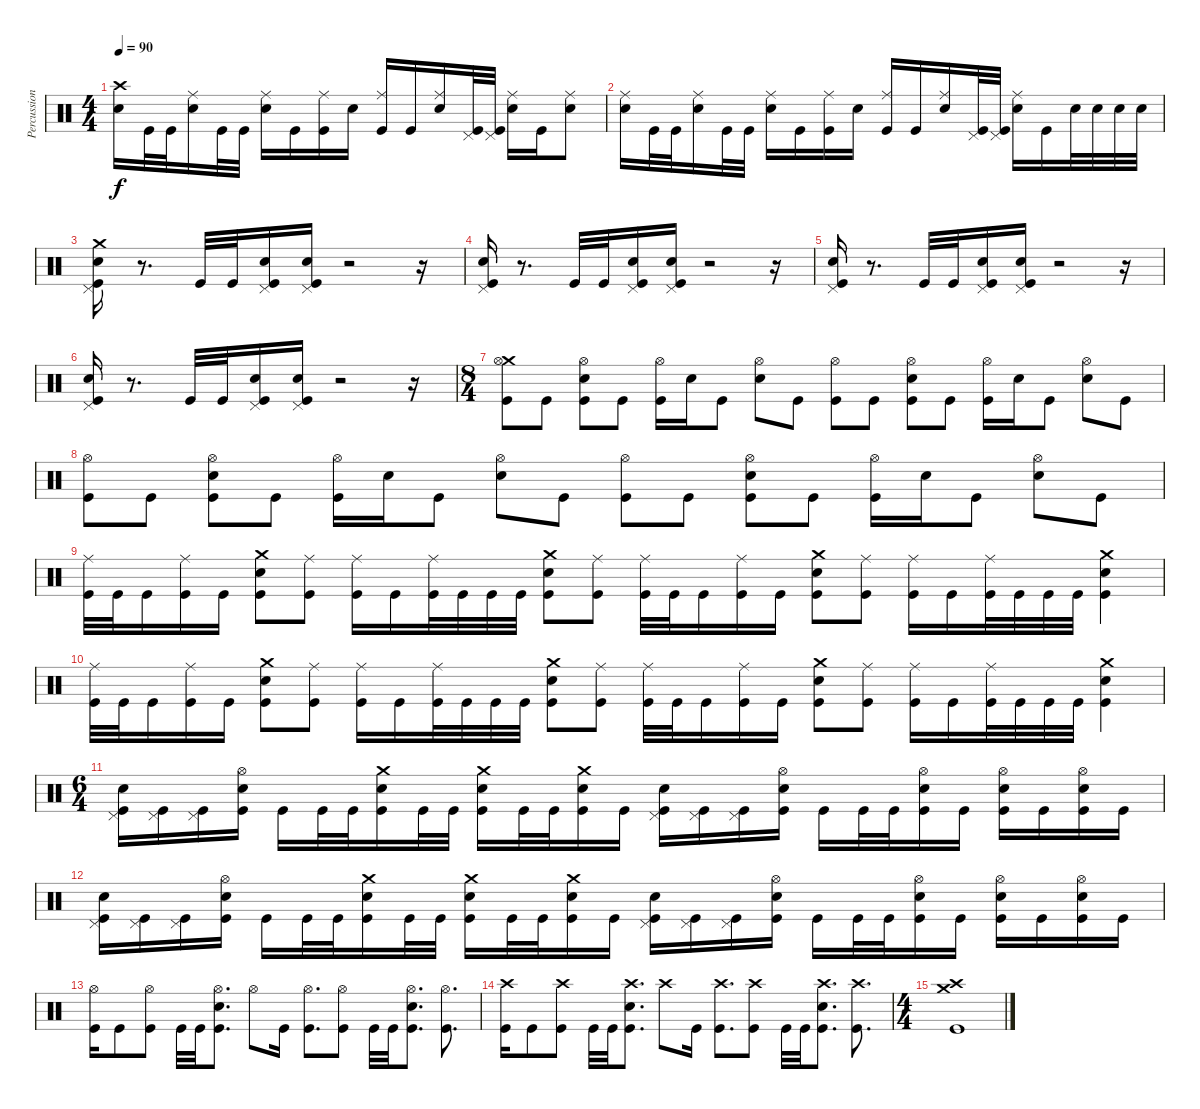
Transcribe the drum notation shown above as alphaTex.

\track ("Percussion" "Percussion") {instrument percussion}
\staff {score}
\articulation defaults
\ts (4 4)
\tempo 90
\clef neutral
\ks c
("Crash high (hit)" "Electric Snare (hit)").16{dy f} "Kick (hit)".32 "Kick (hit)".32 ("Ride (middle)" "Electric Snare (hit)").16 "Kick (hit)".32 "Kick (hit)".32 ("Ride (middle)" "Electric Snare (hit)").16 "Kick (hit)".16 ("Ride (middle)" "Kick (hit)").16 "Electric Snare (hit)".16 ("Ride (middle)" "Kick (hit)").16 "Kick (hit)".16 ("Ride (middle)" "Electric Snare (hit)").16 ("Pedal Hi-Hat (hit)" "Kick (hit)").32 ("Pedal Hi-Hat (hit)" "Kick (hit)").32 ("Ride (middle)" "Electric Snare (hit)").16 "Kick (hit)".16 ("Ride (middle)" "Electric Snare (hit)").8 |
("Ride (middle)" "Electric Snare (hit)").16 "Kick (hit)".32 "Kick (hit)".32 ("Ride (middle)" "Electric Snare (hit)").16 "Kick (hit)".32 "Kick (hit)".32 ("Ride (middle)" "Electric Snare (hit)").16 "Kick (hit)".16 ("Ride (middle)" "Kick (hit)").16 "Electric Snare (hit)".16 ("Ride (middle)" "Kick (hit)").16 "Kick (hit)".16 ("Ride (middle)" "Electric Snare (hit)").16 ("Pedal Hi-Hat (hit)" "Kick (hit)").32 ("Pedal Hi-Hat (hit)" "Kick (hit)").32 ("Ride (middle)" "Electric Snare (hit)").16 "Kick (hit)".16 "Electric Snare (hit)".32 "Electric Snare (hit)".32 "Electric Snare (hit)".32 "Electric Snare (hit)".32 |
("Crash medium (hit)" "Pedal Hi-Hat (hit)" "Electric Snare (hit)" "Kick (hit)").16 r.8{d} "Kick (hit)".32 "Kick (hit)".32 ("Pedal Hi-Hat (hit)" "Electric Snare (hit)" "Kick (hit)").16 ("Pedal Hi-Hat (hit)" "Electric Snare (hit)" "Kick (hit)").16 r.2 r.16 |
("Pedal Hi-Hat (hit)" "Electric Snare (hit)" "Kick (hit)").16 r.8{d} "Kick (hit)".32 "Kick (hit)".32 ("Pedal Hi-Hat (hit)" "Electric Snare (hit)" "Kick (hit)").16 ("Pedal Hi-Hat (hit)" "Electric Snare (hit)" "Kick (hit)").16 r.2 r.16 |
("Pedal Hi-Hat (hit)" "Electric Snare (hit)" "Kick (hit)").16 r.8{d} "Kick (hit)".32 "Kick (hit)".32 ("Pedal Hi-Hat (hit)" "Electric Snare (hit)" "Kick (hit)").16 ("Pedal Hi-Hat (hit)" "Electric Snare (hit)" "Kick (hit)").16 r.2 r.16 |
("Pedal Hi-Hat (hit)" "Electric Snare (hit)" "Kick (hit)").16 r.8{d} "Kick (hit)".32 "Kick (hit)".32 ("Pedal Hi-Hat (hit)" "Electric Snare (hit)" "Kick (hit)").16 ("Pedal Hi-Hat (hit)" "Electric Snare (hit)" "Kick (hit)").16 r.2 r.16 |
\ts (8 4)
("Crash medium (hit)" "Hi-Hat (open)" "Kick (hit)").8 "Kick (hit)".8 ("Hi-Hat (open)" "Electric Snare (hit)" "Kick (hit)").8 "Kick (hit)".8 ("Hi-Hat (open)" "Kick (hit)").16 "Electric Snare (hit)".16 "Kick (hit)".8 ("Hi-Hat (open)" "Electric Snare (hit)").8 "Kick (hit)".8 ("Hi-Hat (open)" "Kick (hit)").8 "Kick (hit)".8 ("Hi-Hat (open)" "Electric Snare (hit)" "Kick (hit)").8 "Kick (hit)".8 ("Hi-Hat (open)" "Kick (hit)").16 "Electric Snare (hit)".16 "Kick (hit)".8 ("Hi-Hat (open)" "Electric Snare (hit)").8 "Kick (hit)".8 |
("Hi-Hat (open)" "Kick (hit)").8 "Kick (hit)".8 ("Hi-Hat (open)" "Electric Snare (hit)" "Kick (hit)").8 "Kick (hit)".8 ("Hi-Hat (open)" "Kick (hit)").16 "Electric Snare (hit)".16 "Kick (hit)".8 ("Hi-Hat (open)" "Electric Snare (hit)").8 "Kick (hit)".8 ("Hi-Hat (open)" "Kick (hit)").8 "Kick (hit)".8 ("Hi-Hat (open)" "Electric Snare (hit)" "Kick (hit)").8 "Kick (hit)".8 ("Hi-Hat (open)" "Kick (hit)").16 "Electric Snare (hit)".16 "Kick (hit)".8 ("Hi-Hat (open)" "Electric Snare (hit)").8 "Kick (hit)".8 |
("Ride (middle)" "Kick (hit)").32 "Kick (hit)".32 "Kick (hit)".16 ("Ride (middle)" "Kick (hit)").16 "Kick (hit)".16 ("Crash medium (hit)" "Electric Snare (hit)" "Kick (hit)").8 ("Ride (middle)" "Kick (hit)").8 ("Ride (middle)" "Kick (hit)").16 "Kick (hit)".16 ("Ride (middle)" "Kick (hit)").32 "Kick (hit)".32 "Kick (hit)".32 "Kick (hit)".32 ("Crash medium (hit)" "Electric Snare (hit)" "Kick (hit)").8 ("Ride (middle)" "Kick (hit)").8 ("Ride (middle)" "Kick (hit)").32 "Kick (hit)".32 "Kick (hit)".16 ("Ride (middle)" "Kick (hit)").16 "Kick (hit)".16 ("Crash medium (hit)" "Electric Snare (hit)" "Kick (hit)").8 ("Ride (middle)" "Kick (hit)").8 ("Ride (middle)" "Kick (hit)").16 "Kick (hit)".16 ("Ride (middle)" "Kick (hit)").32 "Kick (hit)".32 "Kick (hit)".32 "Kick (hit)".32 ("Crash medium (hit)" "Electric Snare (hit)" "Kick (hit)").4 |
("Ride (middle)" "Kick (hit)").32 "Kick (hit)".32 "Kick (hit)".16 ("Ride (middle)" "Kick (hit)").16 "Kick (hit)".16 ("Crash medium (hit)" "Electric Snare (hit)" "Kick (hit)").8 ("Ride (middle)" "Kick (hit)").8 ("Ride (middle)" "Kick (hit)").16 "Kick (hit)".16 ("Ride (middle)" "Kick (hit)").32 "Kick (hit)".32 "Kick (hit)".32 "Kick (hit)".32 ("Crash medium (hit)" "Electric Snare (hit)" "Kick (hit)").8 ("Ride (middle)" "Kick (hit)").8 ("Ride (middle)" "Kick (hit)").32 "Kick (hit)".32 "Kick (hit)".16 ("Ride (middle)" "Kick (hit)").16 "Kick (hit)".16 ("Crash medium (hit)" "Electric Snare (hit)" "Kick (hit)").8 ("Ride (middle)" "Kick (hit)").8 ("Ride (middle)" "Kick (hit)").16 "Kick (hit)".16 ("Ride (middle)" "Kick (hit)").32 "Kick (hit)".32 "Kick (hit)".32 "Kick (hit)".32 ("Crash medium (hit)" "Electric Snare (hit)" "Kick (hit)").4 |
\ts (6 4)
("Pedal Hi-Hat (hit)" "Electric Snare (hit)" "Kick (hit)").16 ("Pedal Hi-Hat (hit)" "Kick (hit)").16 ("Pedal Hi-Hat (hit)" "Kick (hit)").16 ("Hi-Hat (open)" "Electric Snare (hit)" "Kick (hit)").16 "Kick (hit)".16 "Kick (hit)".32 "Kick (hit)".32 ("Crash medium (hit)" "Electric Snare (hit)" "Kick (hit)").16 "Kick (hit)".32 "Kick (hit)".32 ("Crash medium (hit)" "Electric Snare (hit)" "Kick (hit)").16 "Kick (hit)".32 "Kick (hit)".32 ("Crash medium (hit)" "Electric Snare (hit)" "Kick (hit)").16 "Kick (hit)".16 ("Pedal Hi-Hat (hit)" "Electric Snare (hit)" "Kick (hit)").16 ("Pedal Hi-Hat (hit)" "Kick (hit)").16 ("Pedal Hi-Hat (hit)" "Kick (hit)").16 ("Hi-Hat (open)" "Electric Snare (hit)" "Kick (hit)").16 "Kick (hit)".16 "Kick (hit)".32 "Kick (hit)".32 ("Hi-Hat (open)" "Electric Snare (hit)" "Kick (hit)").16 "Kick (hit)".16 ("Hi-Hat (open)" "Electric Snare (hit)" "Kick (hit)").16 "Kick (hit)".16 ("Hi-Hat (open)" "Electric Snare (hit)" "Kick (hit)").16 "Kick (hit)".16 |
("Pedal Hi-Hat (hit)" "Electric Snare (hit)" "Kick (hit)").16 ("Pedal Hi-Hat (hit)" "Kick (hit)").16 ("Pedal Hi-Hat (hit)" "Kick (hit)").16 ("Hi-Hat (open)" "Electric Snare (hit)" "Kick (hit)").16 "Kick (hit)".16 "Kick (hit)".32 "Kick (hit)".32 ("Crash medium (hit)" "Electric Snare (hit)" "Kick (hit)").16 "Kick (hit)".32 "Kick (hit)".32 ("Crash medium (hit)" "Electric Snare (hit)" "Kick (hit)").16 "Kick (hit)".32 "Kick (hit)".32 ("Crash medium (hit)" "Electric Snare (hit)" "Kick (hit)").16 "Kick (hit)".16 ("Pedal Hi-Hat (hit)" "Electric Snare (hit)" "Kick (hit)").16 ("Pedal Hi-Hat (hit)" "Kick (hit)").16 ("Pedal Hi-Hat (hit)" "Kick (hit)").16 ("Hi-Hat (open)" "Electric Snare (hit)" "Kick (hit)").16 "Kick (hit)".16 "Kick (hit)".32 "Kick (hit)".32 ("Hi-Hat (open)" "Electric Snare (hit)" "Kick (hit)").16 "Kick (hit)".16 ("Hi-Hat (open)" "Electric Snare (hit)" "Kick (hit)").16 "Kick (hit)".16 ("Hi-Hat (open)" "Electric Snare (hit)" "Kick (hit)").16 "Kick (hit)".16 |
("Hi-Hat (open)" "Kick (hit)").16 "Kick (hit)".8 ("Hi-Hat (open)" "Kick (hit)").8 "Kick (hit)".32 "Kick (hit)".32 ("Hi-Hat (open)" "Electric Snare (hit)" "Kick (hit)").8{d} "Hi-Hat (open)".8 "Kick (hit)".16 ("Hi-Hat (open)" "Kick (hit)").8{d} ("Hi-Hat (open)" "Kick (hit)").8 "Kick (hit)".32 "Kick (hit)".32 ("Hi-Hat (open)" "Electric Snare (hit)" "Kick (hit)").8{d} ("Hi-Hat (open)" "Kick (hit)").8{d} |
("Crash high (hit)" "Kick (hit)").16 "Kick (hit)".8 ("Crash high (hit)" "Kick (hit)").8 "Kick (hit)".32 "Kick (hit)".32 ("Crash high (hit)" "Electric Snare (hit)" "Kick (hit)").8{d} "Crash high (hit)".8 "Kick (hit)".16 ("Crash high (hit)" "Kick (hit)").8{d} ("Crash high (hit)" "Kick (hit)").8 "Kick (hit)".32 "Kick (hit)".32 ("Crash high (hit)" "Electric Snare (hit)" "Kick (hit)").8{d} ("Crash high (hit)" "Kick (hit)").8{d} |
\ts (4 4)
("Crash medium (hit)" "Crash high (hit)" "Kick (hit)").1
